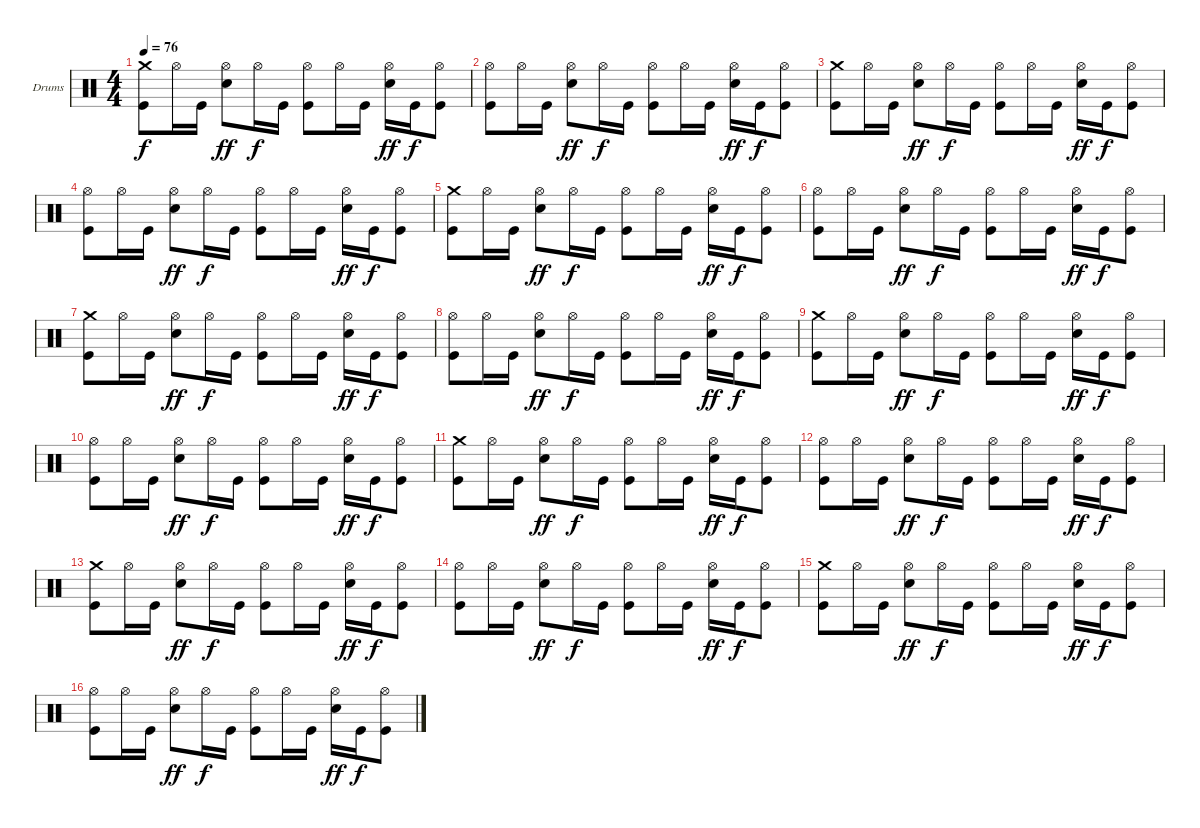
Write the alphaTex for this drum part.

\bracketExtendMode groupsimilarinstruments
\firstSystemTrackNameOrientation horizontal
\otherSystemsTrackNameOrientation horizontal
\track ("Drumkit" "Drums") {instrument percussion}
\staff {score}
\articulation defaults
\ts (4 4)
\tempo 76
\clef neutral
\ks c
("Crash medium (hit)" "Kick (hit)").8{dy f} "Hi-Hat (open)".16 "Kick (hit)".16 ("Snare (hit) 2" "Hi-Hat (open)").8{dy ff} "Hi-Hat (open)".16{dy f} "Kick (hit)".16 ("Kick (hit)" "Hi-Hat (open)").8 "Hi-Hat (open)".16 "Kick (hit)".16 ("Snare (hit) 2" "Hi-Hat (open)").16{dy ff} "Kick (hit)".16{dy f} ("Kick (hit)" "Hi-Hat (open)").8 |
("Hi-Hat (open)" "Kick (hit)").8 "Hi-Hat (open)".16 "Kick (hit)".16 ("Snare (hit) 2" "Hi-Hat (open)").8{dy ff} "Hi-Hat (open)".16{dy f} "Kick (hit)".16 ("Kick (hit)" "Hi-Hat (open)").8 "Hi-Hat (open)".16 "Kick (hit)".16 ("Snare (hit) 2" "Hi-Hat (open)").16{dy ff} "Kick (hit)".16{dy f} ("Kick (hit)" "Hi-Hat (open)").8 |
("Crash medium (hit)" "Kick (hit)").8 "Hi-Hat (open)".16 "Kick (hit)".16 ("Snare (hit) 2" "Hi-Hat (open)").8{dy ff} "Hi-Hat (open)".16{dy f} "Kick (hit)".16 ("Kick (hit)" "Hi-Hat (open)").8 "Hi-Hat (open)".16 "Kick (hit)".16 ("Snare (hit) 2" "Hi-Hat (open)").16{dy ff} "Kick (hit)".16{dy f} ("Kick (hit)" "Hi-Hat (open)").8 |
("Hi-Hat (open)" "Kick (hit)").8 "Hi-Hat (open)".16 "Kick (hit)".16 ("Snare (hit) 2" "Hi-Hat (open)").8{dy ff} "Hi-Hat (open)".16{dy f} "Kick (hit)".16 ("Kick (hit)" "Hi-Hat (open)").8 "Hi-Hat (open)".16 "Kick (hit)".16 ("Snare (hit) 2" "Hi-Hat (open)").16{dy ff} "Kick (hit)".16{dy f} ("Kick (hit)" "Hi-Hat (open)").8 |
("Crash medium (hit)" "Kick (hit)").8 "Hi-Hat (open)".16 "Kick (hit)".16 ("Snare (hit) 2" "Hi-Hat (open)").8{dy ff} "Hi-Hat (open)".16{dy f} "Kick (hit)".16 ("Kick (hit)" "Hi-Hat (open)").8 "Hi-Hat (open)".16 "Kick (hit)".16 ("Snare (hit) 2" "Hi-Hat (open)").16{dy ff} "Kick (hit)".16{dy f} ("Kick (hit)" "Hi-Hat (open)").8 |
("Hi-Hat (open)" "Kick (hit)").8 "Hi-Hat (open)".16 "Kick (hit)".16 ("Snare (hit) 2" "Hi-Hat (open)").8{dy ff} "Hi-Hat (open)".16{dy f} "Kick (hit)".16 ("Kick (hit)" "Hi-Hat (open)").8 "Hi-Hat (open)".16 "Kick (hit)".16 ("Snare (hit) 2" "Hi-Hat (open)").16{dy ff} "Kick (hit)".16{dy f} ("Kick (hit)" "Hi-Hat (open)").8 |
("Crash medium (hit)" "Kick (hit)").8 "Hi-Hat (open)".16 "Kick (hit)".16 ("Snare (hit) 2" "Hi-Hat (open)").8{dy ff} "Hi-Hat (open)".16{dy f} "Kick (hit)".16 ("Kick (hit)" "Hi-Hat (open)").8 "Hi-Hat (open)".16 "Kick (hit)".16 ("Snare (hit) 2" "Hi-Hat (open)").16{dy ff} "Kick (hit)".16{dy f} ("Kick (hit)" "Hi-Hat (open)").8 |
("Hi-Hat (open)" "Kick (hit)").8 "Hi-Hat (open)".16 "Kick (hit)".16 ("Snare (hit) 2" "Hi-Hat (open)").8{dy ff} "Hi-Hat (open)".16{dy f} "Kick (hit)".16 ("Kick (hit)" "Hi-Hat (open)").8 "Hi-Hat (open)".16 "Kick (hit)".16 ("Snare (hit) 2" "Hi-Hat (open)").16{dy ff} "Kick (hit)".16{dy f} ("Kick (hit)" "Hi-Hat (open)").8 |
("Crash medium (hit)" "Kick (hit)").8 "Hi-Hat (open)".16 "Kick (hit)".16 ("Snare (hit) 2" "Hi-Hat (open)").8{dy ff} "Hi-Hat (open)".16{dy f} "Kick (hit)".16 ("Kick (hit)" "Hi-Hat (open)").8 "Hi-Hat (open)".16 "Kick (hit)".16 ("Snare (hit) 2" "Hi-Hat (open)").16{dy ff} "Kick (hit)".16{dy f} ("Kick (hit)" "Hi-Hat (open)").8 |
("Hi-Hat (open)" "Kick (hit)").8 "Hi-Hat (open)".16 "Kick (hit)".16 ("Snare (hit) 2" "Hi-Hat (open)").8{dy ff} "Hi-Hat (open)".16{dy f} "Kick (hit)".16 ("Kick (hit)" "Hi-Hat (open)").8 "Hi-Hat (open)".16 "Kick (hit)".16 ("Snare (hit) 2" "Hi-Hat (open)").16{dy ff} "Kick (hit)".16{dy f} ("Kick (hit)" "Hi-Hat (open)").8 |
("Crash medium (hit)" "Kick (hit)").8 "Hi-Hat (open)".16 "Kick (hit)".16 ("Snare (hit) 2" "Hi-Hat (open)").8{dy ff} "Hi-Hat (open)".16{dy f} "Kick (hit)".16 ("Kick (hit)" "Hi-Hat (open)").8 "Hi-Hat (open)".16 "Kick (hit)".16 ("Snare (hit) 2" "Hi-Hat (open)").16{dy ff} "Kick (hit)".16{dy f} ("Kick (hit)" "Hi-Hat (open)").8 |
("Hi-Hat (open)" "Kick (hit)").8 "Hi-Hat (open)".16 "Kick (hit)".16 ("Snare (hit) 2" "Hi-Hat (open)").8{dy ff} "Hi-Hat (open)".16{dy f} "Kick (hit)".16 ("Kick (hit)" "Hi-Hat (open)").8 "Hi-Hat (open)".16 "Kick (hit)".16 ("Snare (hit) 2" "Hi-Hat (open)").16{dy ff} "Kick (hit)".16{dy f} ("Kick (hit)" "Hi-Hat (open)").8 |
("Crash medium (hit)" "Kick (hit)").8 "Hi-Hat (open)".16 "Kick (hit)".16 ("Snare (hit) 2" "Hi-Hat (open)").8{dy ff} "Hi-Hat (open)".16{dy f} "Kick (hit)".16 ("Kick (hit)" "Hi-Hat (open)").8 "Hi-Hat (open)".16 "Kick (hit)".16 ("Snare (hit) 2" "Hi-Hat (open)").16{dy ff} "Kick (hit)".16{dy f} ("Kick (hit)" "Hi-Hat (open)").8 |
("Hi-Hat (open)" "Kick (hit)").8 "Hi-Hat (open)".16 "Kick (hit)".16 ("Snare (hit) 2" "Hi-Hat (open)").8{dy ff} "Hi-Hat (open)".16{dy f} "Kick (hit)".16 ("Kick (hit)" "Hi-Hat (open)").8 "Hi-Hat (open)".16 "Kick (hit)".16 ("Snare (hit) 2" "Hi-Hat (open)").16{dy ff} "Kick (hit)".16{dy f} ("Kick (hit)" "Hi-Hat (open)").8 |
("Crash medium (hit)" "Kick (hit)").8 "Hi-Hat (open)".16 "Kick (hit)".16 ("Snare (hit) 2" "Hi-Hat (open)").8{dy ff} "Hi-Hat (open)".16{dy f} "Kick (hit)".16 ("Kick (hit)" "Hi-Hat (open)").8 "Hi-Hat (open)".16 "Kick (hit)".16 ("Snare (hit) 2" "Hi-Hat (open)").16{dy ff} "Kick (hit)".16{dy f} ("Kick (hit)" "Hi-Hat (open)").8 |
("Hi-Hat (open)" "Kick (hit)").8 "Hi-Hat (open)".16 "Kick (hit)".16 ("Snare (hit) 2" "Hi-Hat (open)").8{dy ff} "Hi-Hat (open)".16{dy f} "Kick (hit)".16 ("Kick (hit)" "Hi-Hat (open)").8 "Hi-Hat (open)".16 "Kick (hit)".16 ("Snare (hit) 2" "Hi-Hat (open)").16{dy ff} "Kick (hit)".16{dy f} ("Kick (hit)" "Hi-Hat (open)").8
